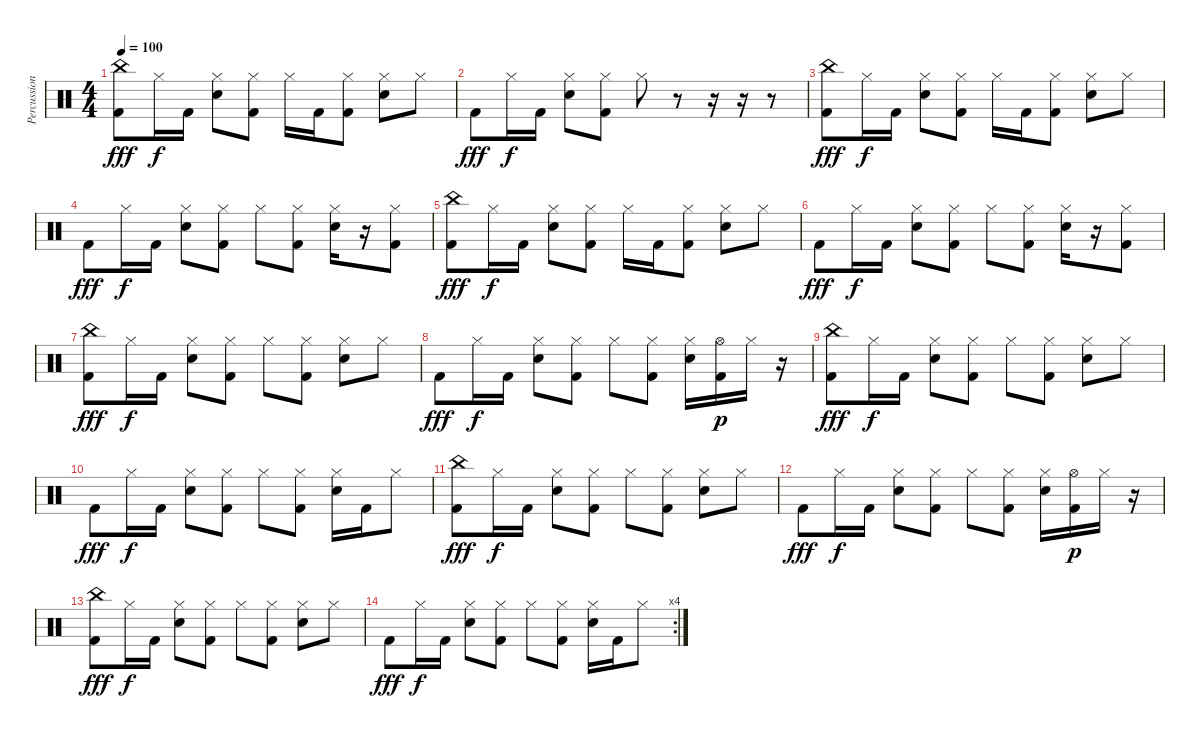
\track ("Percussion" "Percussion") {instrument percussion}
\staff {score}
\articulation defaults
\ts (4 4)
\tempo 100
\clef neutral
\ks c
("China (hit)" "Kick (hit) 2").8{dy fff} "Hi-Hat (closed)".16{dy f} "Kick (hit) 2".16 ("Hi-Hat (closed)" "Snare (hit) 2").8 ("Hi-Hat (closed)" "Kick (hit) 2").8 "Hi-Hat (closed)".16 "Kick (hit) 2".16 ("Hi-Hat (closed)" "Kick (hit) 2").8 ("Hi-Hat (closed)" "Snare (hit) 2").8 "Hi-Hat (closed)".8 |
"Kick (hit) 2".8{dy fff} "Hi-Hat (closed)".16{dy f} "Kick (hit) 2".16 ("Hi-Hat (closed)" "Snare (hit) 2").8 ("Hi-Hat (closed)" "Kick (hit) 2").8 "Hi-Hat (closed)".8 r.8 r.16 r.16 r.8 |
("China (hit)" "Kick (hit) 2").8{dy fff} "Hi-Hat (closed)".16{dy f} "Kick (hit) 2".16 ("Hi-Hat (closed)" "Snare (hit) 2").8 ("Hi-Hat (closed)" "Kick (hit) 2").8 "Hi-Hat (closed)".16 "Kick (hit) 2".16 ("Hi-Hat (closed)" "Kick (hit) 2").8 ("Hi-Hat (closed)" "Snare (hit) 2").8 "Hi-Hat (closed)".8 |
"Kick (hit) 2".8{dy fff} "Hi-Hat (closed)".16{dy f} "Kick (hit) 2".16 ("Hi-Hat (closed)" "Snare (hit) 2").8 ("Hi-Hat (closed)" "Kick (hit) 2").8 "Hi-Hat (closed)".8 ("Hi-Hat (closed)" "Kick (hit) 2").8 ("Hi-Hat (closed)" "Snare (hit) 2").16 r.16 ("Hi-Hat (closed)" "Kick (hit) 2").8 |
("China (hit)" "Kick (hit) 2").8{dy fff} "Hi-Hat (closed)".16{dy f} "Kick (hit) 2".16 ("Hi-Hat (closed)" "Snare (hit) 2").8 ("Hi-Hat (closed)" "Kick (hit) 2").8 "Hi-Hat (closed)".16 "Kick (hit) 2".16 ("Hi-Hat (closed)" "Kick (hit) 2").8 ("Hi-Hat (closed)" "Snare (hit) 2").8 "Hi-Hat (closed)".8 |
"Kick (hit) 2".8{dy fff} "Hi-Hat (closed)".16{dy f} "Kick (hit) 2".16 ("Hi-Hat (closed)" "Snare (hit) 2").8 ("Hi-Hat (closed)" "Kick (hit) 2").8 "Hi-Hat (closed)".8 ("Hi-Hat (closed)" "Kick (hit) 2").8 ("Hi-Hat (closed)" "Snare (hit) 2").16 r.16 ("Hi-Hat (closed)" "Kick (hit) 2").8 |
("China (hit)" "Kick (hit) 2").8{dy fff} "Hi-Hat (closed)".16{dy f} "Kick (hit) 2".16 ("Hi-Hat (closed)" "Snare (hit) 2").8 ("Hi-Hat (closed)" "Kick (hit) 2").8 "Hi-Hat (closed)".8 ("Hi-Hat (closed)" "Kick (hit) 2").8 ("Hi-Hat (closed)" "Snare (hit) 2").8 "Hi-Hat (closed)".8 |
"Kick (hit) 2".8{dy fff} "Hi-Hat (closed)".16{dy f} "Kick (hit) 2".16 ("Hi-Hat (closed)" "Snare (hit) 2").8 ("Hi-Hat (closed)" "Kick (hit) 2").8 "Hi-Hat (closed)".8 ("Hi-Hat (closed)" "Kick (hit) 2").8 ("Hi-Hat (closed)" "Snare (hit) 2").16 ("Hi-Hat (open)" "Kick (hit) 2").16{dy p} "Hi-Hat (closed)".16 r.16 |
("China (hit)" "Kick (hit) 2").8{dy fff} "Hi-Hat (closed)".16{dy f} "Kick (hit) 2".16 ("Hi-Hat (closed)" "Snare (hit) 2").8 ("Hi-Hat (closed)" "Kick (hit) 2").8 "Hi-Hat (closed)".8 ("Hi-Hat (closed)" "Kick (hit) 2").8 ("Hi-Hat (closed)" "Snare (hit) 2").8 "Hi-Hat (closed)".8 |
"Kick (hit) 2".8{dy fff} "Hi-Hat (closed)".16{dy f} "Kick (hit) 2".16 ("Hi-Hat (closed)" "Snare (hit) 2").8 ("Hi-Hat (closed)" "Kick (hit) 2").8 "Hi-Hat (closed)".8 ("Hi-Hat (closed)" "Kick (hit) 2").8 ("Hi-Hat (closed)" "Snare (hit) 2").16 "Kick (hit) 2".16 "Hi-Hat (closed)".8 |
("China (hit)" "Kick (hit) 2").8{dy fff} "Hi-Hat (closed)".16{dy f} "Kick (hit) 2".16 ("Hi-Hat (closed)" "Snare (hit) 2").8 ("Hi-Hat (closed)" "Kick (hit) 2").8 "Hi-Hat (closed)".8 ("Hi-Hat (closed)" "Kick (hit) 2").8 ("Hi-Hat (closed)" "Snare (hit) 2").8 "Hi-Hat (closed)".8 |
"Kick (hit) 2".8{dy fff} "Hi-Hat (closed)".16{dy f} "Kick (hit) 2".16 ("Hi-Hat (closed)" "Snare (hit) 2").8 ("Hi-Hat (closed)" "Kick (hit) 2").8 "Hi-Hat (closed)".8 ("Hi-Hat (closed)" "Kick (hit) 2").8 ("Hi-Hat (closed)" "Snare (hit) 2").16 ("Hi-Hat (open)" "Kick (hit) 2").16{dy p} "Hi-Hat (closed)".16 r.16 |
("China (hit)" "Kick (hit) 2").8{dy fff} "Hi-Hat (closed)".16{dy f} "Kick (hit) 2".16 ("Hi-Hat (closed)" "Snare (hit) 2").8 ("Hi-Hat (closed)" "Kick (hit) 2").8 "Hi-Hat (closed)".8 ("Hi-Hat (closed)" "Kick (hit) 2").8 ("Hi-Hat (closed)" "Snare (hit) 2").8 "Hi-Hat (closed)".8 |
\rc 4 "Kick (hit) 2".8{dy fff} "Hi-Hat (closed)".16{dy f} "Kick (hit) 2".16
("Hi-Hat (closed)" "Snare (hit) 2").8 ("Hi-Hat (closed)" "Kick (hit) 2").8 "Hi-Hat (closed)".8 ("Hi-Hat (closed)" "Kick (hit) 2").8 ("Hi-Hat (closed)" "Snare (hit) 2").16 "Kick (hit) 2".16 "Hi-Hat (closed)".8
